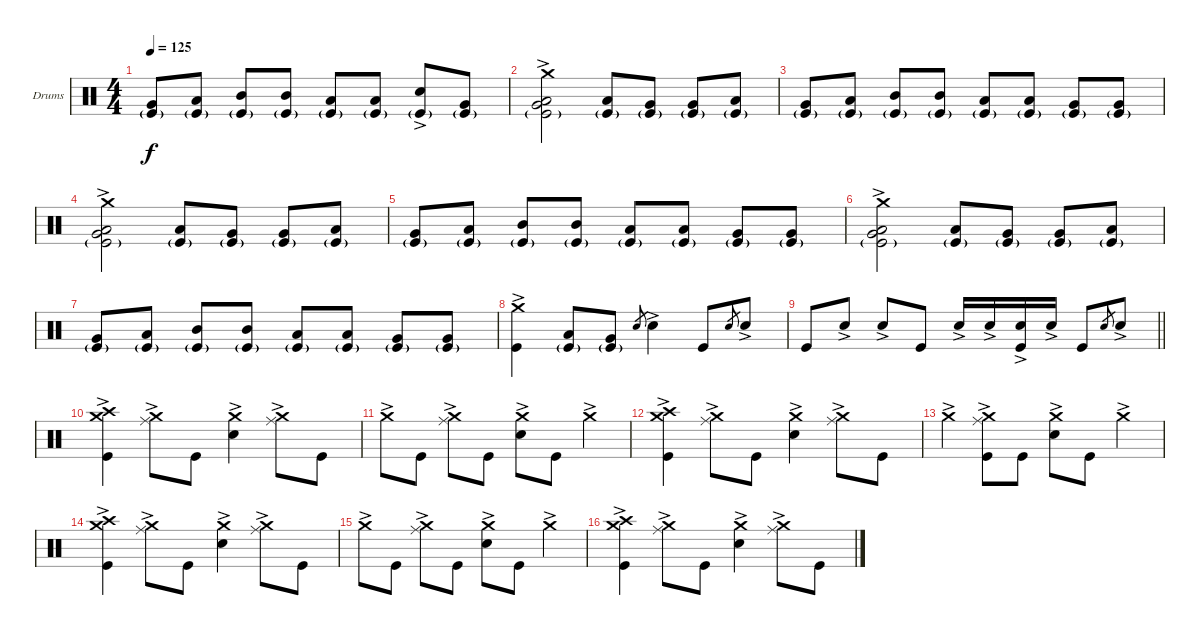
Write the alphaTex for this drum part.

\bracketExtendMode groupsimilarinstruments
\firstSystemTrackNameOrientation horizontal
\otherSystemsTrackNameOrientation horizontal
\track ("Drumkit" "Drums") {instrument percussion}
\staff {score}
\articulation defaults
\ts (4 4)
\tempo 125
\clef neutral
\ks c
("Kick (hit)"{g} "Very Low Tom (hit)").8{dy f} ("Low Tom (hit)" "Kick (hit)"{g}).8 ("Mid Tom (hit)" "Kick (hit)"{g}).8 ("Mid Tom (hit)" "Kick (hit)"{g}).8 ("Low Tom (hit)" "Kick (hit)"{g}).8 ("Low Tom (hit)" "Kick (hit)"{g}).8 ("Snare (hit) 2"{ac} "Kick (hit)"{g}).8 ("Very Low Tom (hit)" "Kick (hit)"{g}).8 |
("Crash medium (hit)"{ac} "Low Tom (hit)" "Very Low Tom (hit)" "Kick (hit)"{g}).2 ("Low Tom (hit)" "Kick (hit)"{g}).8 ("Very Low Tom (hit)" "Kick (hit)"{g}).8 ("Very Low Tom (hit)" "Kick (hit)"{g}).8 ("Low Tom (hit)" "Kick (hit)"{g}).8 |
("Kick (hit)"{g} "Very Low Tom (hit)").8 ("Low Tom (hit)" "Kick (hit)"{g}).8 ("Mid Tom (hit)" "Kick (hit)"{g}).8 ("Mid Tom (hit)" "Kick (hit)"{g}).8 ("Low Tom (hit)" "Kick (hit)"{g}).8 ("Low Tom (hit)" "Kick (hit)"{g}).8 ("Very Low Tom (hit)" "Kick (hit)"{g}).8 ("Very Low Tom (hit)" "Kick (hit)"{g}).8 |
("Crash medium (hit)"{ac} "Low Tom (hit)" "Very Low Tom (hit)" "Kick (hit)"{g}).2 ("Low Tom (hit)" "Kick (hit)"{g}).8 ("Very Low Tom (hit)" "Kick (hit)"{g}).8 ("Very Low Tom (hit)" "Kick (hit)"{g}).8 ("Low Tom (hit)" "Kick (hit)"{g}).8 |
("Kick (hit)"{g} "Very Low Tom (hit)").8 ("Low Tom (hit)" "Kick (hit)"{g}).8 ("Mid Tom (hit)" "Kick (hit)"{g}).8 ("Mid Tom (hit)" "Kick (hit)"{g}).8 ("Low Tom (hit)" "Kick (hit)"{g}).8 ("Low Tom (hit)" "Kick (hit)"{g}).8 ("Very Low Tom (hit)" "Kick (hit)"{g}).8 ("Very Low Tom (hit)" "Kick (hit)"{g}).8 |
("Crash medium (hit)"{ac} "Low Tom (hit)" "Very Low Tom (hit)" "Kick (hit)"{g}).2 ("Low Tom (hit)" "Kick (hit)"{g}).8 ("Very Low Tom (hit)" "Kick (hit)"{g}).8 ("Very Low Tom (hit)" "Kick (hit)"{g}).8 ("Low Tom (hit)" "Kick (hit)"{g}).8 |
("Kick (hit)"{g} "Very Low Tom (hit)").8 ("Low Tom (hit)" "Kick (hit)"{g}).8 ("Mid Tom (hit)" "Kick (hit)"{g}).8 ("Mid Tom (hit)" "Kick (hit)"{g}).8 ("Low Tom (hit)" "Kick (hit)"{g}).8 ("Low Tom (hit)" "Kick (hit)"{g}).8 ("Very Low Tom (hit)" "Kick (hit)"{g}).8 ("Very Low Tom (hit)" "Kick (hit)"{g}).8 |
("Crash medium (hit)"{ac} "Kick (hit)").4 ("Low Tom (hit)" "Kick (hit)"{g}).8 ("Kick (hit)"{g} "Very Low Tom (hit)").8 "Snare (hit) 2".8{gr} "Snare (hit) 2"{ac}.4 "Kick (hit)".8 "Snare (hit) 2".8{gr} "Snare (hit) 2"{ac}.8 |
\barLineRight lightlight "Kick (hit)".8 "Snare (hit) 2"{ac}.8 "Snare (hit) 2"{ac}.8 "Kick (hit)".8 "Snare (hit) 2"{ac}.16 "Snare (hit) 2"{ac}.16
("Snare (hit) 2"{ac} "Kick (hit)").16 "Snare (hit) 2"{ac}.16 "Kick (hit)".8 "Snare (hit) 2".8{gr} "Snare (hit) 2"{ac}.8 |
("Crash medium (hit)"{ac} "Crash high (hit)" "Kick (hit)").4 ("Crash medium (hit)"{ac} "Ride (middle)"{ac}).8 "Kick (hit)".8 ("Crash medium (hit)"{ac} "Snare (hit) 2"{ac}).4 ("Crash medium (hit)"{ac} "Ride (middle)"{ac}).8 "Kick (hit)".8 |
"Crash medium (hit)"{ac}.8 "Kick (hit)".8 ("Crash medium (hit)"{ac} "Ride (middle)"{ac}).8 "Kick (hit)".8 ("Crash medium (hit)"{ac} "Snare (hit) 2"{ac}).8 "Kick (hit)".8 "Crash medium (hit)"{ac}.4 |
("Crash medium (hit)"{ac} "Crash high (hit)" "Kick (hit)").4 ("Crash medium (hit)"{ac} "Ride (middle)"{ac}).8 "Kick (hit)".8 ("Crash medium (hit)"{ac} "Snare (hit) 2"{ac}).4 ("Crash medium (hit)"{ac} "Ride (middle)"{ac}).8 "Kick (hit)".8 |
"Crash medium (hit)"{ac}.4 ("Crash medium (hit)"{ac} "Ride (middle)"{ac} "Kick (hit)").8 "Kick (hit)".8 ("Crash medium (hit)"{ac} "Snare (hit) 2"{ac}).8 "Kick (hit)".8 "Crash medium (hit)"{ac}.4 |
("Crash medium (hit)"{ac} "Crash high (hit)" "Kick (hit)").4 ("Crash medium (hit)"{ac} "Ride (middle)"{ac}).8 "Kick (hit)".8 ("Crash medium (hit)"{ac} "Snare (hit) 2"{ac}).4 ("Crash medium (hit)"{ac} "Ride (middle)"{ac}).8 "Kick (hit)".8 |
"Crash medium (hit)"{ac}.8 "Kick (hit)".8 ("Crash medium (hit)"{ac} "Ride (middle)"{ac}).8 "Kick (hit)".8 ("Crash medium (hit)"{ac} "Snare (hit) 2"{ac}).8 "Kick (hit)".8 "Crash medium (hit)"{ac}.4 |
("Crash medium (hit)"{ac} "Crash high (hit)" "Kick (hit)").4 ("Crash medium (hit)"{ac} "Ride (middle)"{ac}).8 "Kick (hit)".8 ("Crash medium (hit)"{ac} "Snare (hit) 2"{ac}).4 ("Crash medium (hit)"{ac} "Ride (middle)"{ac}).8 "Kick (hit)".8
